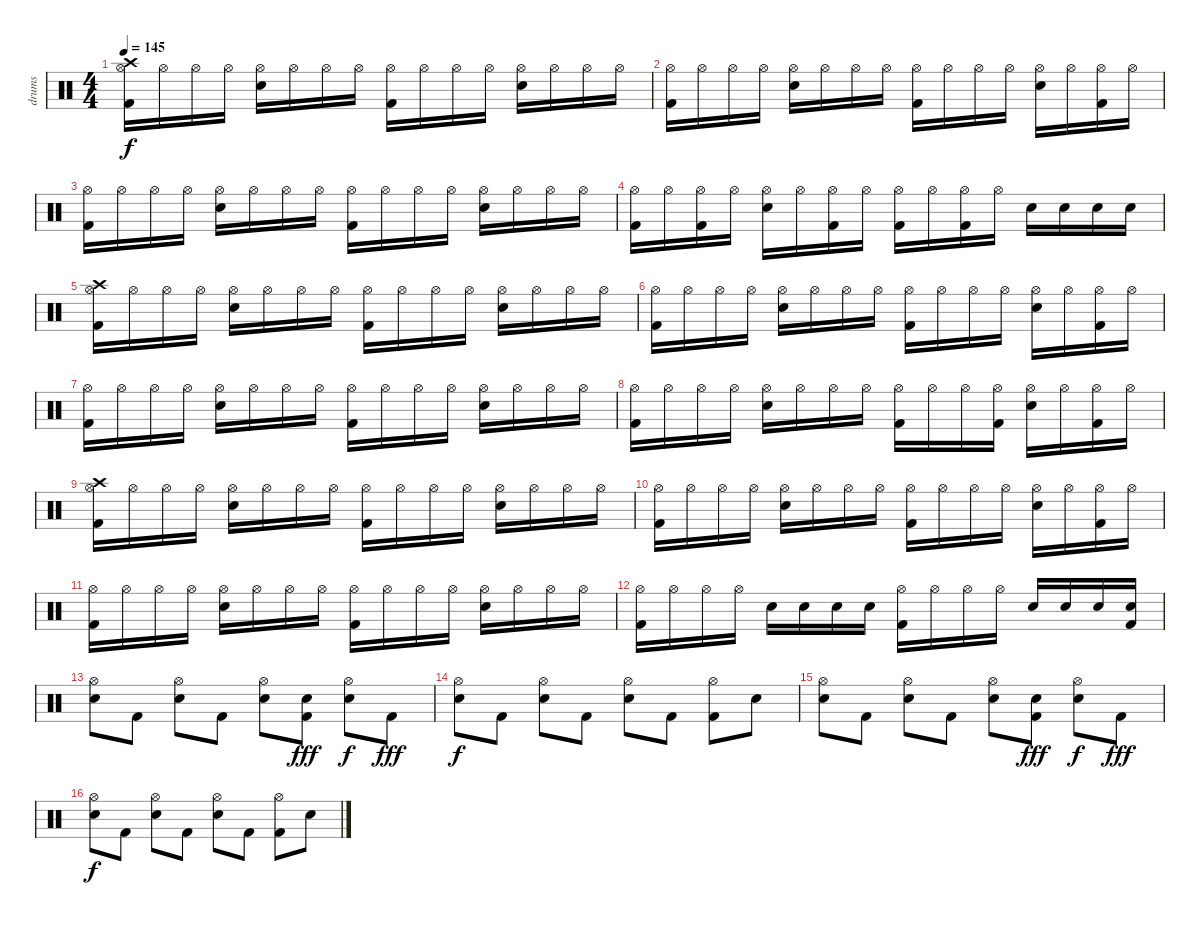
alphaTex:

\track ("drums" "drums") {instrument percussion}
\staff {score}
\articulation defaults
\ts (4 4)
\tempo 145
\clef neutral
\ks c
("Kick (hit) 2" "Crash high (hit)" "Hi-Hat (open)").16{dy f} "Hi-Hat (open)".16 "Hi-Hat (open)".16 "Hi-Hat (open)".16 ("Snare (hit) 2" "Hi-Hat (open)").16 "Hi-Hat (open)".16 "Hi-Hat (open)".16 "Hi-Hat (open)".16 ("Kick (hit) 2" "Hi-Hat (open)").16 "Hi-Hat (open)".16 "Hi-Hat (open)".16 "Hi-Hat (open)".16 ("Snare (hit) 2" "Hi-Hat (open)").16 "Hi-Hat (open)".16 "Hi-Hat (open)".16 "Hi-Hat (open)".16 |
("Kick (hit) 2" "Hi-Hat (open)").16 "Hi-Hat (open)".16 "Hi-Hat (open)".16 "Hi-Hat (open)".16 ("Snare (hit) 2" "Hi-Hat (open)").16 "Hi-Hat (open)".16 "Hi-Hat (open)".16 "Hi-Hat (open)".16 ("Kick (hit) 2" "Hi-Hat (open)").16 "Hi-Hat (open)".16 "Hi-Hat (open)".16 "Hi-Hat (open)".16 ("Snare (hit) 2" "Hi-Hat (open)").16 "Hi-Hat (open)".16 ("Kick (hit) 2" "Hi-Hat (open)").16 "Hi-Hat (open)".16 |
("Kick (hit) 2" "Hi-Hat (open)").16 "Hi-Hat (open)".16 "Hi-Hat (open)".16 "Hi-Hat (open)".16 ("Snare (hit) 2" "Hi-Hat (open)").16 "Hi-Hat (open)".16 "Hi-Hat (open)".16 "Hi-Hat (open)".16 ("Kick (hit) 2" "Hi-Hat (open)").16 "Hi-Hat (open)".16 "Hi-Hat (open)".16 "Hi-Hat (open)".16 ("Snare (hit) 2" "Hi-Hat (open)").16 "Hi-Hat (open)".16 "Hi-Hat (open)".16 "Hi-Hat (open)".16 |
("Kick (hit) 2" "Hi-Hat (open)").16 "Hi-Hat (open)".16 ("Kick (hit) 2" "Hi-Hat (open)").16 "Hi-Hat (open)".16 ("Snare (hit) 2" "Hi-Hat (open)").16 "Hi-Hat (open)".16 ("Kick (hit) 2" "Hi-Hat (open)").16 "Hi-Hat (open)".16 ("Kick (hit) 2" "Hi-Hat (open)").16 "Hi-Hat (open)".16 ("Kick (hit) 2" "Hi-Hat (open)").16 "Hi-Hat (open)".16 "Snare (hit) 2".16 "Snare (hit) 2".16 "Snare (hit) 2".16 "Snare (hit) 2".16 |
("Kick (hit) 2" "Crash high (hit)" "Hi-Hat (open)").16 "Hi-Hat (open)".16 "Hi-Hat (open)".16 "Hi-Hat (open)".16 ("Snare (hit) 2" "Hi-Hat (open)").16 "Hi-Hat (open)".16 "Hi-Hat (open)".16 "Hi-Hat (open)".16 ("Kick (hit) 2" "Hi-Hat (open)").16 "Hi-Hat (open)".16 "Hi-Hat (open)".16 "Hi-Hat (open)".16 ("Snare (hit) 2" "Hi-Hat (open)").16 "Hi-Hat (open)".16 "Hi-Hat (open)".16 "Hi-Hat (open)".16 |
("Kick (hit) 2" "Hi-Hat (open)").16 "Hi-Hat (open)".16 "Hi-Hat (open)".16 "Hi-Hat (open)".16 ("Snare (hit) 2" "Hi-Hat (open)").16 "Hi-Hat (open)".16 "Hi-Hat (open)".16 "Hi-Hat (open)".16 ("Kick (hit) 2" "Hi-Hat (open)").16 "Hi-Hat (open)".16 "Hi-Hat (open)".16 "Hi-Hat (open)".16 ("Snare (hit) 2" "Hi-Hat (open)").16 "Hi-Hat (open)".16 ("Kick (hit) 2" "Hi-Hat (open)").16 "Hi-Hat (open)".16 |
("Kick (hit) 2" "Hi-Hat (open)").16 "Hi-Hat (open)".16 "Hi-Hat (open)".16 "Hi-Hat (open)".16 ("Snare (hit) 2" "Hi-Hat (open)").16 "Hi-Hat (open)".16 "Hi-Hat (open)".16 "Hi-Hat (open)".16 ("Kick (hit) 2" "Hi-Hat (open)").16 "Hi-Hat (open)".16 "Hi-Hat (open)".16 "Hi-Hat (open)".16 ("Snare (hit) 2" "Hi-Hat (open)").16 "Hi-Hat (open)".16 "Hi-Hat (open)".16 "Hi-Hat (open)".16 |
("Kick (hit) 2" "Hi-Hat (open)").16 "Hi-Hat (open)".16 "Hi-Hat (open)".16 "Hi-Hat (open)".16 ("Snare (hit) 2" "Hi-Hat (open)").16 "Hi-Hat (open)".16 "Hi-Hat (open)".16 "Hi-Hat (open)".16 ("Kick (hit) 2" "Hi-Hat (open)").16 "Hi-Hat (open)".16 "Hi-Hat (open)".16 ("Kick (hit) 2" "Hi-Hat (open)").16 ("Snare (hit) 2" "Hi-Hat (open)").16 "Hi-Hat (open)".16 ("Kick (hit) 2" "Hi-Hat (open)").16 "Hi-Hat (open)".16 |
("Kick (hit) 2" "Crash high (hit)" "Hi-Hat (open)").16 "Hi-Hat (open)".16 "Hi-Hat (open)".16 "Hi-Hat (open)".16 ("Snare (hit) 2" "Hi-Hat (open)").16 "Hi-Hat (open)".16 "Hi-Hat (open)".16 "Hi-Hat (open)".16 ("Kick (hit) 2" "Hi-Hat (open)").16 "Hi-Hat (open)".16 "Hi-Hat (open)".16 "Hi-Hat (open)".16 ("Snare (hit) 2" "Hi-Hat (open)").16 "Hi-Hat (open)".16 "Hi-Hat (open)".16 "Hi-Hat (open)".16 |
("Kick (hit) 2" "Hi-Hat (open)").16 "Hi-Hat (open)".16 "Hi-Hat (open)".16 "Hi-Hat (open)".16 ("Snare (hit) 2" "Hi-Hat (open)").16 "Hi-Hat (open)".16 "Hi-Hat (open)".16 "Hi-Hat (open)".16 ("Kick (hit) 2" "Hi-Hat (open)").16 "Hi-Hat (open)".16 "Hi-Hat (open)".16 "Hi-Hat (open)".16 ("Snare (hit) 2" "Hi-Hat (open)").16 "Hi-Hat (open)".16 ("Kick (hit) 2" "Hi-Hat (open)").16 "Hi-Hat (open)".16 |
("Kick (hit) 2" "Hi-Hat (open)").16 "Hi-Hat (open)".16 "Hi-Hat (open)".16 "Hi-Hat (open)".16 ("Snare (hit) 2" "Hi-Hat (open)").16 "Hi-Hat (open)".16 "Hi-Hat (open)".16 "Hi-Hat (open)".16 ("Kick (hit) 2" "Hi-Hat (open)").16 "Hi-Hat (open)".16 "Hi-Hat (open)".16 "Hi-Hat (open)".16 ("Snare (hit) 2" "Hi-Hat (open)").16 "Hi-Hat (open)".16 "Hi-Hat (open)".16 "Hi-Hat (open)".16 |
("Kick (hit) 2" "Hi-Hat (open)").16 "Hi-Hat (open)".16 "Hi-Hat (open)".16 "Hi-Hat (open)".16 "Snare (hit) 2".16 "Snare (hit) 2".16 "Snare (hit) 2".16 "Snare (hit) 2".16 ("Kick (hit) 2" "Hi-Hat (open)").16 "Hi-Hat (open)".16 "Hi-Hat (open)".16 "Hi-Hat (open)".16 "Snare (hit) 2".16 "Snare (hit) 2".16 "Snare (hit) 2".16 ("Kick (hit) 2" "Snare (hit) 2").16 |
("Hi-Hat (open)" "Snare (hit) 2").8 "Kick (hit) 2".8 ("Hi-Hat (open)" "Snare (hit) 2").8 "Kick (hit) 2".8 ("Hi-Hat (open)" "Snare (hit) 2").8 ("Snare (hit) 2" "Kick (hit) 2").8{dy fff} ("Hi-Hat (open)" "Snare (hit) 2").8{dy f} "Kick (hit) 2".8{dy fff} |
("Hi-Hat (open)" "Snare (hit) 2").8{dy f} "Kick (hit) 2".8 ("Hi-Hat (open)" "Snare (hit) 2").8 "Kick (hit) 2".8 ("Hi-Hat (open)" "Snare (hit) 2").8 "Kick (hit) 2".8 ("Hi-Hat (open)" "Kick (hit) 2").8 "Snare (hit) 2".8 |
("Hi-Hat (open)" "Snare (hit) 2").8 "Kick (hit) 2".8 ("Hi-Hat (open)" "Snare (hit) 2").8 "Kick (hit) 2".8 ("Hi-Hat (open)" "Snare (hit) 2").8 ("Snare (hit) 2" "Kick (hit) 2").8{dy fff} ("Hi-Hat (open)" "Snare (hit) 2").8{dy f} "Kick (hit) 2".8{dy fff} |
("Hi-Hat (open)" "Snare (hit) 2").8{dy f} "Kick (hit) 2".8 ("Hi-Hat (open)" "Snare (hit) 2").8 "Kick (hit) 2".8 ("Hi-Hat (open)" "Snare (hit) 2").8 "Kick (hit) 2".8 ("Hi-Hat (open)" "Kick (hit) 2").8 "Snare (hit) 2".8
